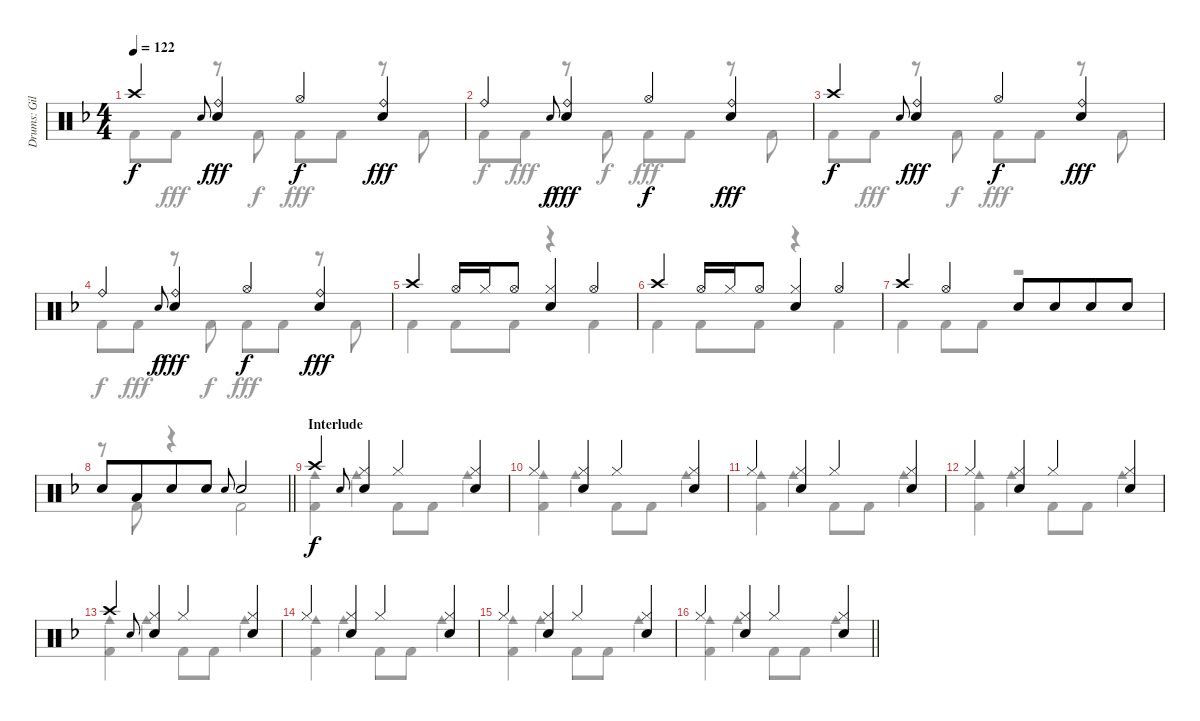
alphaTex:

\track ("Drums: Gil" "Drums: Gil") {instrument percussion}
\staff {score}
\articulation defaults
\voice
\ts (4 4)
\tempo 122
\clef neutral
\ks f "Crash high (hit)".4{dy f} "Electric Snare (hit)".8{gr onbeat}
("Ride (bell)" "Snare (hit) 2").4{dy fff} "Hi-Hat (open)".4{dy f} ("Ride (bell)" "Snare (hit) 2").4{dy fff} |
"Ride (bell)".4 "Electric Snare (hit)".8{gr onbeat dy f} ("Ride (bell)" "Snare (hit) 2").4{dy fff} "Hi-Hat (open)".4{dy f} ("Ride (bell)" "Snare (hit) 2").4{dy fff} |
"Crash high (hit)".4{dy f} "Electric Snare (hit)".8{gr onbeat} ("Ride (bell)" "Snare (hit) 2").4{dy fff} "Hi-Hat (open)".4{dy f} ("Ride (bell)" "Snare (hit) 2").4{dy fff} |
"Ride (bell)".4 "Electric Snare (hit)".8{gr onbeat dy f} ("Ride (bell)" "Snare (hit) 2").4{dy fff} "Hi-Hat (open)".4{dy f} ("Ride (bell)" "Snare (hit) 2").4{dy fff} |
"Crash high (hit)".4 "Hi-Hat (open)".16 "Hi-Hat (closed)".16 "Hi-Hat (open)".8 ("Hi-Hat (closed)" "Snare (hit) 2").4 "Hi-Hat (open)".4 |
"Crash high (hit)".4 "Hi-Hat (open)".16 "Hi-Hat (closed)".16 "Hi-Hat (open)".8 ("Hi-Hat (closed)" "Snare (hit) 2").4 "Hi-Hat (open)".4 |
"Crash high (hit)".4 "Hi-Hat (open)".4 "Snare (hit) 2".8 "Snare (hit) 2".8{beam merge} "Snare (hit) 2".8 "Snare (hit) 2".8 |
\barLineRight lightlight "Snare (hit) 2".8 "Low Tom (hit)".8{beam merge} "Snare (hit) 2".8 "Snare (hit) 2".8 "Electric Snare (hit)".8{gr onbeat} "Snare (hit) 2".2
|
\section ("" "Interlude")
"Crash high (hit)".4{dy f} "Electric Snare (hit)".8{gr onbeat} ("Hi-Hat (closed)" "Snare (hit) 2").4 "Hi-Hat (closed)".4 ("Hi-Hat (closed)" "Snare (hit) 2").4 |
"Hi-Hat (closed)".4 ("Hi-Hat (closed)" "Snare (hit) 2").4 "Hi-Hat (closed)".4 ("Hi-Hat (closed)" "Snare (hit) 2").4 |
"Hi-Hat (closed)".4 ("Hi-Hat (closed)" "Snare (hit) 2").4 "Hi-Hat (closed)".4 ("Hi-Hat (closed)" "Snare (hit) 2").4 |
"Hi-Hat (closed)".4 ("Hi-Hat (closed)" "Snare (hit) 2").4 "Hi-Hat (closed)".4 ("Hi-Hat (closed)" "Snare (hit) 2").4 |
"Crash high (hit)".4 "Electric Snare (hit)".8{gr onbeat} ("Hi-Hat (closed)" "Snare (hit) 2").4 "Hi-Hat (closed)".4 ("Hi-Hat (closed)" "Snare (hit) 2").4 |
"Hi-Hat (closed)".4 ("Hi-Hat (closed)" "Snare (hit) 2").4 "Hi-Hat (closed)".4 ("Hi-Hat (closed)" "Snare (hit) 2").4 |
"Hi-Hat (closed)".4 ("Hi-Hat (closed)" "Snare (hit) 2").4 "Hi-Hat (closed)".4 ("Hi-Hat (closed)" "Snare (hit) 2").4 |
\barLineRight lightlight "Hi-Hat (closed)".4
("Hi-Hat (closed)" "Snare (hit) 2").4 "Hi-Hat (closed)".4 ("Hi-Hat (closed)" "Snare (hit) 2").4
\voice
\clef neutral
\ottava regular
\simile none
\ks f "Kick (hit) 2".8{dy f} "Kick (hit) 2".8{dy fff}
r.8 "Kick (hit) 2".8{dy f} "Kick (hit) 2".8{dy fff} "Kick (hit) 2".8 r.8 "Kick (hit) 2".8 |
"Kick (hit) 2".8{dy f} "Kick (hit) 2".8{dy fff} r.8 "Kick (hit) 2".8{dy f} "Kick (hit) 2".8{dy fff} "Kick (hit) 2".8 r.8 "Kick (hit) 2".8 |
"Kick (hit) 2".8{dy f} "Kick (hit) 2".8{dy fff} r.8 "Kick (hit) 2".8{dy f} "Kick (hit) 2".8{dy fff} "Kick (hit) 2".8 r.8 "Kick (hit) 2".8 |
"Kick (hit) 2".8{dy f} "Kick (hit) 2".8{dy fff} r.8 "Kick (hit) 2".8{dy f} "Kick (hit) 2".8{dy fff} "Kick (hit) 2".8 r.8 "Kick (hit) 2".8 |
"Kick (hit) 2".4 "Kick (hit) 2".8 "Kick (hit) 2".8 r.4 "Kick (hit) 2".4 |
"Kick (hit) 2".4 "Kick (hit) 2".8 "Kick (hit) 2".8 r.4 "Kick (hit) 2".4 |
"Kick (hit) 2".4 "Kick (hit) 2".8 "Kick (hit) 2".8 r.2 |
\barLineRight lightlight
r.8 "Kick (hit) 2".8 r.4 "Kick (hit) 2".2 |
("Kick (hit) 2" "Cowbell medium (hit)").4{dy f} "Cowbell medium (hit)".4 "Kick (hit) 2".8 "Kick (hit) 2".8 "Cowbell medium (hit)".4 |
("Kick (hit) 2" "Cowbell medium (hit)").4 "Cowbell medium (hit)".4 "Kick (hit) 2".8 "Kick (hit) 2".8 "Cowbell medium (hit)".4 |
("Kick (hit) 2" "Cowbell medium (hit)").4 "Cowbell medium (hit)".4 "Kick (hit) 2".8 "Kick (hit) 2".8 "Cowbell medium (hit)".4 |
("Kick (hit) 2" "Cowbell medium (hit)").4 "Cowbell medium (hit)".4 "Kick (hit) 2".8 "Kick (hit) 2".8 "Cowbell medium (hit)".4 |
("Kick (hit) 2" "Cowbell medium (hit)").4 "Cowbell medium (hit)".4 "Kick (hit) 2".8 "Kick (hit) 2".8 "Cowbell medium (hit)".4 |
("Kick (hit) 2" "Cowbell medium (hit)").4 "Cowbell medium (hit)".4 "Kick (hit) 2".8 "Kick (hit) 2".8 "Cowbell medium (hit)".4 |
("Kick (hit) 2" "Cowbell medium (hit)").4 "Cowbell medium (hit)".4 "Kick (hit) 2".8 "Kick (hit) 2".8 "Cowbell medium (hit)".4 |
\barLineRight lightlight
("Kick (hit) 2" "Cowbell medium (hit)").4 "Cowbell medium (hit)".4 "Kick (hit) 2".8 "Kick (hit) 2".8 "Cowbell medium (hit)".4
